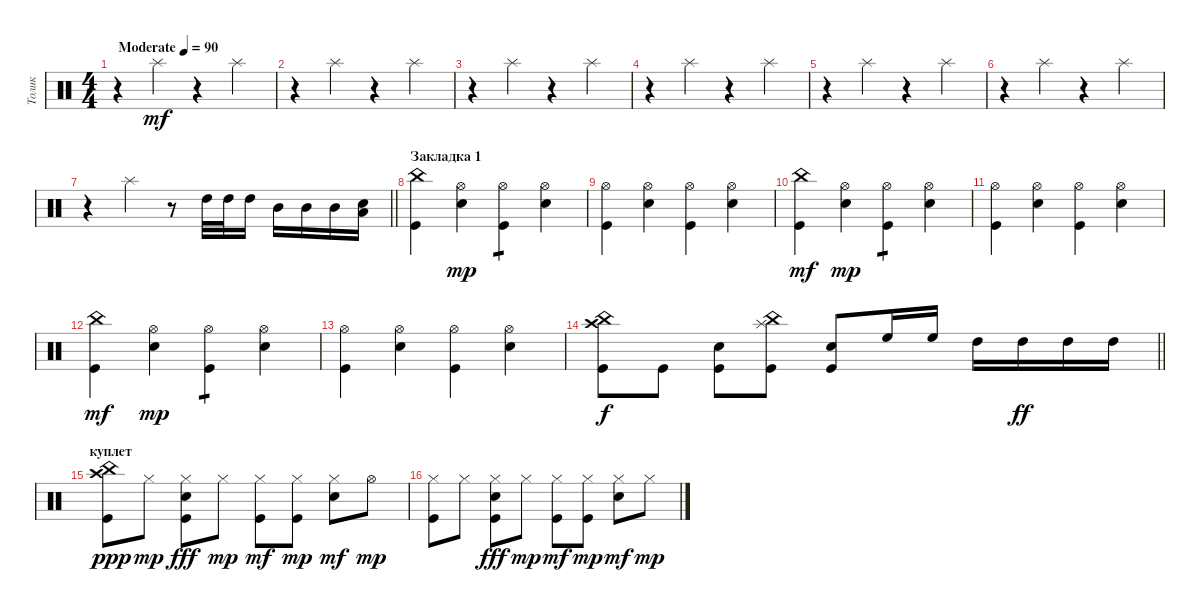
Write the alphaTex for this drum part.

\track ("Толик" "Толик") {instrument percussion}
\staff {score}
\articulation defaults
\ts (4 4)
\tempo (90 "Moderate")
\clef neutral
\ks c
r.4{dy mf} "Splash (hit)".4 r.4 "Splash (hit)".4 |
r.4 "Splash (hit)".4 r.4 "Splash (hit)".4 |
r.4 "Splash (hit)".4 r.4 "Splash (hit)".4 |
r.4 "Splash (hit)".4 r.4 "Splash (hit)".4 |
r.4 "Splash (hit)".4 r.4 "Splash (hit)".4 |
r.4 "Splash (hit)".4 r.4 "Splash (hit)".4 |
\barLineRight lightlight
r.4 "Splash (hit)".4 r.8 "High Tom (hit)".32 "High Tom (hit)".32 "High Tom (hit)".16 "Mid Tom (hit)".16 "Mid Tom (hit)".16 "Mid Tom (hit)".16 ("Low Tom (hit)" "Snare (hit) 2").16 |
\section ("" "Закладка 1")
("China (hit)" "Kick (hit)").4 ("Snare (hit) 2" "Hi-Hat (open)").4{dy mp} ("Kick (hit)" "Hi-Hat (open)").4{tp 1} ("Snare (hit) 2" "Hi-Hat (open)").4 |
("Kick (hit)" "Hi-Hat (open)").4 ("Snare (hit) 2" "Hi-Hat (open)").4 ("Kick (hit)" "Hi-Hat (open)").4 ("Snare (hit) 2" "Hi-Hat (open)").4 |
("China (hit)" "Kick (hit)").4{dy mf} ("Snare (hit) 2" "Hi-Hat (open)").4{dy mp} ("Kick (hit)" "Hi-Hat (open)").4{tp 1} ("Snare (hit) 2" "Hi-Hat (open)").4 |
("Kick (hit)" "Hi-Hat (open)").4 ("Snare (hit) 2" "Hi-Hat (open)").4 ("Kick (hit)" "Hi-Hat (open)").4 ("Snare (hit) 2" "Hi-Hat (open)").4 |
("China (hit)" "Kick (hit)").4{dy mf} ("Snare (hit) 2" "Hi-Hat (open)").4{dy mp} ("Kick (hit)" "Hi-Hat (open)").4{tp 1} ("Snare (hit) 2" "Hi-Hat (open)").4 |
("Kick (hit)" "Hi-Hat (open)").4 ("Snare (hit) 2" "Hi-Hat (open)").4 ("Kick (hit)" "Hi-Hat (open)").4 ("Snare (hit) 2" "Hi-Hat (open)").4 |
\barLineRight lightlight
("Crash high (hit)" "China (hit)" "Kick (hit)").8{dy f} "Kick (hit)".8 ("Kick (hit)" "Snare (hit) 2").8 ("China (hit)" "Splash (hit)" "Kick (hit)").8 ("Snare (hit) 2" "Kick (hit)").8 "High Floor Tom (hit)".16 "High Floor Tom (hit)".16 "High Tom (hit)".16 "High Tom (hit)".16{dy ff} "High Tom (hit)".16 "High Tom (hit)".16 |
\section ("" "куплет")
("China (hit)" "Kick (hit)" "Crash high (hit)").8{dy ppp} "Hi-Hat (closed)".8{dy mp} ("Kick (hit)" "Hi-Hat (closed)" "Snare (hit) 2").8{dy fff} "Hi-Hat (closed)".8{dy mp} ("Kick (hit)" "Hi-Hat (closed)").8{dy mf} ("Kick (hit)" "Hi-Hat (closed)").8{dy mp} ("Snare (hit) 2" "Hi-Hat (closed)").8{dy mf} "Hi-Hat (open)".8{dy mp} |
("Hi-Hat (closed)" "Kick (hit)").8 "Hi-Hat (closed)".8 ("Kick (hit)" "Hi-Hat (closed)" "Snare (hit) 2").8{dy fff} "Hi-Hat (closed)".8{dy mp} ("Kick (hit)" "Hi-Hat (closed)").8{dy mf} ("Kick (hit)" "Hi-Hat (closed)").8{dy mp} ("Snare (hit) 2" "Hi-Hat (closed)").8{dy mf} "Hi-Hat (closed)".8{dy mp}
